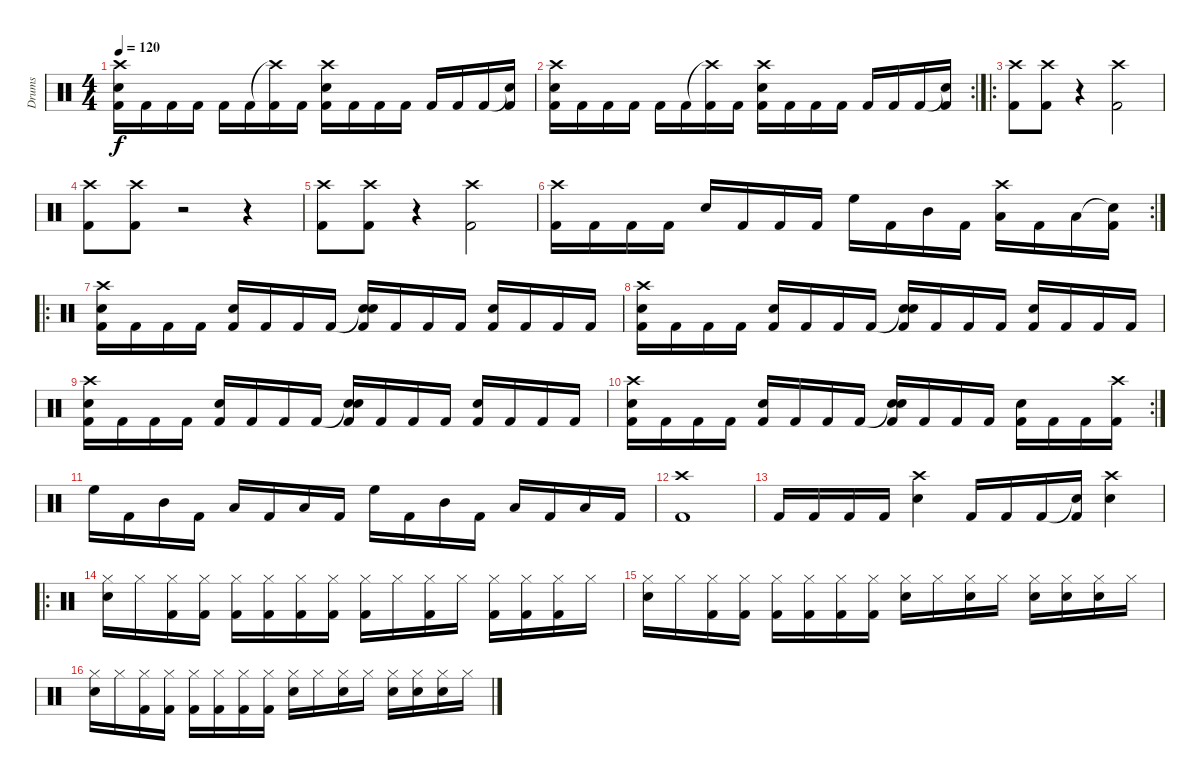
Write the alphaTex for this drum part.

\track ("Drums" "Drums") {instrument percussion}
\staff {score}
\articulation defaults
\ts (4 4)
\tempo 120
\clef neutral
\ks c
("Crash high (hit)" "Snare (hit) 2" "Kick (hit) 2").16{dy f} "Kick (hit) 2".16 "Kick (hit) 2".16 "Kick (hit) 2".16 "Kick (hit) 2".16 "Kick (hit) 2".16 ("Crash high (hit)"{t} "Kick (hit) 2").16 "Kick (hit) 2".16 ("Crash high (hit)" "Snare (hit) 2" "Kick (hit) 2").16 "Kick (hit) 2".16 "Kick (hit) 2".16 "Kick (hit) 2".16 "Kick (hit) 2".16 "Kick (hit) 2".16 "Kick (hit) 2".16 ("Snare (hit)"{t} "Kick (hit) 2").16 |
\rc 2
("Crash high (hit)" "Snare (hit) 2" "Kick (hit) 2").16 "Kick (hit) 2".16 "Kick (hit) 2".16 "Kick (hit) 2".16 "Kick (hit) 2".16 "Kick (hit) 2".16 ("Crash high (hit)"{t} "Kick (hit) 2").16 "Kick (hit) 2".16 ("Crash high (hit)" "Snare (hit) 2" "Kick (hit) 2").16 "Kick (hit) 2".16 "Kick (hit) 2".16 "Kick (hit) 2".16 "Kick (hit) 2".16 "Kick (hit) 2".16 "Kick (hit) 2".16 ("Snare (hit)"{t} "Kick (hit) 2").16 |
\ro
("Crash high (hit)" "Kick (hit) 2").8 ("Crash high (hit)" "Kick (hit) 2").8 r.4 ("Crash high (hit)" "Kick (hit) 2").2 |
("Crash high (hit)" "Kick (hit) 2").8 ("Crash high (hit)" "Kick (hit) 2").8 r.2 r.4 |
("Crash high (hit)" "Kick (hit) 2").8 ("Crash high (hit)" "Kick (hit) 2").8 r.4 ("Crash high (hit)" "Kick (hit) 2").2 |
\rc 2
("Crash high (hit)" "Kick (hit) 2").16 "Kick (hit) 2".16 "Kick (hit) 2".16 "Kick (hit) 2".16 "Snare (hit) 2".16 "Kick (hit) 2".16 "Kick (hit) 2".16 "Kick (hit) 2".16 "High Floor Tom (hit)".16 "Kick (hit) 2".16 "Mid Tom (hit)".16 "Kick (hit) 2".16 ("Crash high (hit)" "Low Tom (hit)").16 "Kick (hit) 2".16 "Low Floor Tom (hit)".16 ("Snare (hit)"{t} "Kick (hit) 2").16 |
\ro
("Crash high (hit)" "Snare (hit) 2" "Kick (hit) 2").16 "Kick (hit) 2".16 "Kick (hit) 2".16 "Kick (hit) 2".16 ("Snare (hit) 2" "Kick (hit) 2").16 "Kick (hit) 2".16 "Kick (hit) 2".16 "Kick (hit) 2".16 ("Snare (hit)"{t} "Snare (hit) 2" "Kick (hit) 2").16 "Kick (hit) 2".16 "Kick (hit) 2".16 "Kick (hit) 2".16 ("Snare (hit) 2" "Kick (hit) 2").16 "Kick (hit) 2".16 "Kick (hit) 2".16 "Kick (hit) 2".16 |
("Crash high (hit)" "Snare (hit) 2" "Kick (hit) 2").16 "Kick (hit) 2".16 "Kick (hit) 2".16 "Kick (hit) 2".16 ("Snare (hit) 2" "Kick (hit) 2").16 "Kick (hit) 2".16 "Kick (hit) 2".16 "Kick (hit) 2".16 ("Snare (hit)"{t} "Snare (hit) 2" "Kick (hit) 2").16 "Kick (hit) 2".16 "Kick (hit) 2".16 "Kick (hit) 2".16 ("Snare (hit) 2" "Kick (hit) 2").16 "Kick (hit) 2".16 "Kick (hit) 2".16 "Kick (hit) 2".16 |
("Crash high (hit)" "Snare (hit) 2" "Kick (hit) 2").16 "Kick (hit) 2".16 "Kick (hit) 2".16 "Kick (hit) 2".16 ("Snare (hit) 2" "Kick (hit) 2").16 "Kick (hit) 2".16 "Kick (hit) 2".16 "Kick (hit) 2".16 ("Snare (hit)"{t} "Snare (hit) 2" "Kick (hit) 2").16 "Kick (hit) 2".16 "Kick (hit) 2".16 "Kick (hit) 2".16 ("Snare (hit) 2" "Kick (hit) 2").16 "Kick (hit) 2".16 "Kick (hit) 2".16 "Kick (hit) 2".16 |
\rc 2
("Crash high (hit)" "Snare (hit) 2" "Kick (hit) 2").16 "Kick (hit) 2".16 "Kick (hit) 2".16 "Kick (hit) 2".16 ("Snare (hit) 2" "Kick (hit) 2").16 "Kick (hit) 2".16 "Kick (hit) 2".16 "Kick (hit) 2".16 ("Snare (hit)"{t} "Snare (hit) 2" "Kick (hit) 2").16 "Kick (hit) 2".16 "Kick (hit) 2".16 "Kick (hit) 2".16 ("Snare (hit) 2" "Kick (hit) 2").16 "Kick (hit) 2".16 "Kick (hit) 2".16 ("Crash high (hit)" "Kick (hit) 2").16 |
"High Floor Tom (hit)".16 "Kick (hit) 2".16 "Mid Tom (hit)".16 "Kick (hit) 2".16 "Low Tom (hit)".16 "Kick (hit) 2".16 "Low Floor Tom (hit)".16 "Kick (hit) 2".16 "High Floor Tom (hit)".16 "Kick (hit) 2".16 "Mid Tom (hit)".16 "Kick (hit) 2".16 "Low Tom (hit)".16 "Kick (hit) 2".16 "Low Floor Tom (hit)".16 "Kick (hit) 2".16 |
("Crash high (hit)" "Kick (hit) 2").1 |
"Kick (hit) 2".16 "Kick (hit) 2".16 "Kick (hit) 2".16 "Kick (hit) 2".16 ("Crash high (hit)" "Snare (hit) 2").4 "Kick (hit) 2".16 "Kick (hit) 2".16 "Kick (hit) 2".16 ("Snare (hit)"{t} "Kick (hit) 2").16 ("Crash high (hit)" "Snare (hit) 2").4 |
\ro
("Hi-Hat (closed)" "Snare (hit) 2").16 "Hi-Hat (closed)".16 ("Hi-Hat (closed)" "Kick (hit) 2").16 ("Hi-Hat (closed)" "Kick (hit) 2").16 ("Hi-Hat (closed)" "Kick (hit) 2").16 ("Hi-Hat (closed)" "Kick (hit) 2").16 ("Hi-Hat (closed)" "Kick (hit) 2").16 ("Hi-Hat (closed)" "Kick (hit) 2").16 ("Hi-Hat (closed)" "Kick (hit) 2").16 "Hi-Hat (closed)".16 ("Hi-Hat (closed)" "Kick (hit) 2").16 "Hi-Hat (closed)".16 ("Hi-Hat (closed)" "Kick (hit) 2").16 ("Hi-Hat (closed)" "Kick (hit) 2").16 ("Hi-Hat (closed)" "Kick (hit) 2").16 "Hi-Hat (closed)".16 |
("Hi-Hat (closed)" "Snare (hit) 2").16 "Hi-Hat (closed)".16 ("Hi-Hat (closed)" "Kick (hit) 2").16 ("Hi-Hat (closed)" "Kick (hit) 2").16 ("Hi-Hat (closed)" "Kick (hit) 2").16 ("Hi-Hat (closed)" "Kick (hit) 2").16 ("Hi-Hat (closed)" "Kick (hit) 2").16 ("Hi-Hat (closed)" "Kick (hit) 2").16 ("Hi-Hat (closed)" "Snare (hit) 2").16 "Hi-Hat (closed)".16 ("Hi-Hat (closed)" "Snare (hit) 2").16 "Hi-Hat (closed)".16 ("Hi-Hat (closed)" "Snare (hit) 2").16 ("Hi-Hat (closed)" "Snare (hit) 2").16 ("Hi-Hat (closed)" "Snare (hit) 2").16 "Hi-Hat (closed)".16 |
("Hi-Hat (closed)" "Snare (hit) 2").16 "Hi-Hat (closed)".16 ("Hi-Hat (closed)" "Kick (hit) 2").16 ("Hi-Hat (closed)" "Kick (hit) 2").16 ("Hi-Hat (closed)" "Kick (hit) 2").16 ("Hi-Hat (closed)" "Kick (hit) 2").16 ("Hi-Hat (closed)" "Kick (hit) 2").16 ("Hi-Hat (closed)" "Kick (hit) 2").16 ("Hi-Hat (closed)" "Snare (hit) 2").16 "Hi-Hat (closed)".16 ("Hi-Hat (closed)" "Snare (hit) 2").16 "Hi-Hat (closed)".16 ("Hi-Hat (closed)" "Snare (hit) 2").16 ("Hi-Hat (closed)" "Snare (hit) 2").16 ("Hi-Hat (closed)" "Snare (hit) 2").16 "Hi-Hat (closed)".16
